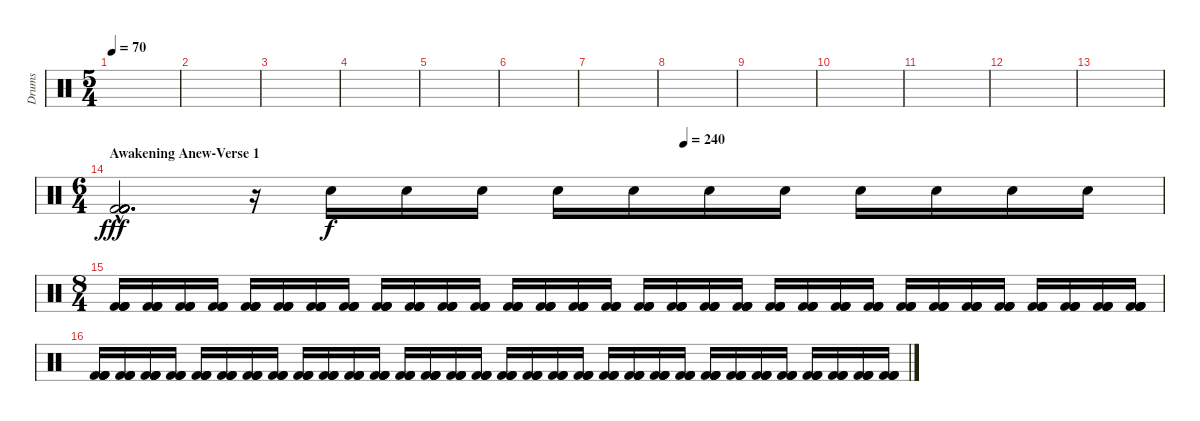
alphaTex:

\track ("Drums" "Drums") {instrument percussion}
\staff {score}
\articulation defaults
\ts (5 4)
\tempo 70
\clef neutral
\ks c
|
|
|
|
|
|
|
|
|
|
|
|
|
\ts (6 4)
\section ("" "Awakening Anew-Verse 1")
\tempo (240 0.5416666666666666)
("Kick (hit) 2"{hac} "Kick (hit) 2"{hac} "Kick (hit) 2"{hac} "Kick (hit) 2"{hac} "Kick (hit) 2"{hac} "Kick (hit) 2"{hac}).2{d dy fff} r.16 "Snare (hit) 2".16{dy f} "Snare (hit) 2".16 "Snare (hit) 2".16 "Snare (hit) 2".16 "Snare (hit) 2".16 "Snare (hit) 2".16 "Snare (hit) 2".16 "Snare (hit) 2".16 "Snare (hit) 2".16 "Snare (hit) 2".16 "Snare (hit) 2".16 |
\ts (8 4)
("Kick (hit) 2" "Kick (hit) 2" "Kick (hit) 2" "Kick (hit) 2").16 ("Kick (hit) 2" "Kick (hit) 2" "Kick (hit) 2" "Kick (hit) 2").16 ("Kick (hit) 2" "Kick (hit) 2" "Kick (hit) 2" "Kick (hit) 2").16 ("Kick (hit) 2" "Kick (hit) 2" "Kick (hit) 2" "Kick (hit) 2").16 ("Kick (hit) 2" "Kick (hit) 2" "Kick (hit) 2" "Kick (hit) 2").16 ("Kick (hit) 2" "Kick (hit) 2" "Kick (hit) 2" "Kick (hit) 2").16 ("Kick (hit) 2" "Kick (hit) 2" "Kick (hit) 2" "Kick (hit) 2").16 ("Kick (hit) 2" "Kick (hit) 2" "Kick (hit) 2" "Kick (hit) 2").16 ("Kick (hit) 2" "Kick (hit) 2" "Kick (hit) 2" "Kick (hit) 2").16 ("Kick (hit) 2" "Kick (hit) 2" "Kick (hit) 2" "Kick (hit) 2").16 ("Kick (hit) 2" "Kick (hit) 2" "Kick (hit) 2" "Kick (hit) 2").16 ("Kick (hit) 2" "Kick (hit) 2" "Kick (hit) 2" "Kick (hit) 2").16 ("Kick (hit) 2" "Kick (hit) 2" "Kick (hit) 2" "Kick (hit) 2").16 ("Kick (hit) 2" "Kick (hit) 2" "Kick (hit) 2" "Kick (hit) 2").16 ("Kick (hit) 2" "Kick (hit) 2" "Kick (hit) 2" "Kick (hit) 2").16 ("Kick (hit) 2" "Kick (hit) 2" "Kick (hit) 2" "Kick (hit) 2").16 ("Kick (hit) 2" "Kick (hit) 2" "Kick (hit) 2" "Kick (hit) 2").16 ("Kick (hit) 2" "Kick (hit) 2" "Kick (hit) 2" "Kick (hit) 2").16 ("Kick (hit) 2" "Kick (hit) 2" "Kick (hit) 2" "Kick (hit) 2").16 ("Kick (hit) 2" "Kick (hit) 2" "Kick (hit) 2" "Kick (hit) 2").16 ("Kick (hit) 2" "Kick (hit) 2" "Kick (hit) 2" "Kick (hit) 2").16 ("Kick (hit) 2" "Kick (hit) 2" "Kick (hit) 2" "Kick (hit) 2").16 ("Kick (hit) 2" "Kick (hit) 2" "Kick (hit) 2" "Kick (hit) 2").16 ("Kick (hit) 2" "Kick (hit) 2" "Kick (hit) 2" "Kick (hit) 2").16 ("Kick (hit) 2" "Kick (hit) 2" "Kick (hit) 2" "Kick (hit) 2").16 ("Kick (hit) 2" "Kick (hit) 2" "Kick (hit) 2" "Kick (hit) 2").16 ("Kick (hit) 2" "Kick (hit) 2" "Kick (hit) 2" "Kick (hit) 2").16 ("Kick (hit) 2" "Kick (hit) 2" "Kick (hit) 2" "Kick (hit) 2").16 ("Kick (hit) 2" "Kick (hit) 2" "Kick (hit) 2" "Kick (hit) 2").16 ("Kick (hit) 2" "Kick (hit) 2" "Kick (hit) 2" "Kick (hit) 2").16 ("Kick (hit) 2" "Kick (hit) 2" "Kick (hit) 2" "Kick (hit) 2").16 ("Kick (hit) 2" "Kick (hit) 2" "Kick (hit) 2" "Kick (hit) 2").16 |
("Kick (hit) 2" "Kick (hit) 2" "Kick (hit) 2" "Kick (hit) 2").16 ("Kick (hit) 2" "Kick (hit) 2" "Kick (hit) 2" "Kick (hit) 2").16 ("Kick (hit) 2" "Kick (hit) 2" "Kick (hit) 2" "Kick (hit) 2").16 ("Kick (hit) 2" "Kick (hit) 2" "Kick (hit) 2" "Kick (hit) 2").16 ("Kick (hit) 2" "Kick (hit) 2" "Kick (hit) 2" "Kick (hit) 2").16 ("Kick (hit) 2" "Kick (hit) 2" "Kick (hit) 2" "Kick (hit) 2").16 ("Kick (hit) 2" "Kick (hit) 2" "Kick (hit) 2" "Kick (hit) 2").16 ("Kick (hit) 2" "Kick (hit) 2" "Kick (hit) 2" "Kick (hit) 2").16 ("Kick (hit) 2" "Kick (hit) 2" "Kick (hit) 2" "Kick (hit) 2").16 ("Kick (hit) 2" "Kick (hit) 2" "Kick (hit) 2" "Kick (hit) 2").16 ("Kick (hit) 2" "Kick (hit) 2" "Kick (hit) 2" "Kick (hit) 2").16 ("Kick (hit) 2" "Kick (hit) 2" "Kick (hit) 2" "Kick (hit) 2").16 ("Kick (hit) 2" "Kick (hit) 2" "Kick (hit) 2" "Kick (hit) 2").16 ("Kick (hit) 2" "Kick (hit) 2" "Kick (hit) 2" "Kick (hit) 2").16 ("Kick (hit) 2" "Kick (hit) 2" "Kick (hit) 2" "Kick (hit) 2").16 ("Kick (hit) 2" "Kick (hit) 2" "Kick (hit) 2" "Kick (hit) 2").16 ("Kick (hit) 2" "Kick (hit) 2" "Kick (hit) 2" "Kick (hit) 2").16 ("Kick (hit) 2" "Kick (hit) 2" "Kick (hit) 2" "Kick (hit) 2").16 ("Kick (hit) 2" "Kick (hit) 2" "Kick (hit) 2" "Kick (hit) 2").16 ("Kick (hit) 2" "Kick (hit) 2" "Kick (hit) 2" "Kick (hit) 2").16 ("Kick (hit) 2" "Kick (hit) 2" "Kick (hit) 2" "Kick (hit) 2").16 ("Kick (hit) 2" "Kick (hit) 2" "Kick (hit) 2" "Kick (hit) 2").16 ("Kick (hit) 2" "Kick (hit) 2" "Kick (hit) 2" "Kick (hit) 2").16 ("Kick (hit) 2" "Kick (hit) 2" "Kick (hit) 2" "Kick (hit) 2").16 ("Kick (hit) 2" "Kick (hit) 2" "Kick (hit) 2" "Kick (hit) 2").16 ("Kick (hit) 2" "Kick (hit) 2" "Kick (hit) 2" "Kick (hit) 2").16 ("Kick (hit) 2" "Kick (hit) 2" "Kick (hit) 2" "Kick (hit) 2").16 ("Kick (hit) 2" "Kick (hit) 2" "Kick (hit) 2" "Kick (hit) 2").16 ("Kick (hit) 2" "Kick (hit) 2" "Kick (hit) 2" "Kick (hit) 2").16 ("Kick (hit) 2" "Kick (hit) 2" "Kick (hit) 2" "Kick (hit) 2").16 ("Kick (hit) 2" "Kick (hit) 2" "Kick (hit) 2" "Kick (hit) 2").16 ("Kick (hit) 2" "Kick (hit) 2" "Kick (hit) 2" "Kick (hit) 2").16
